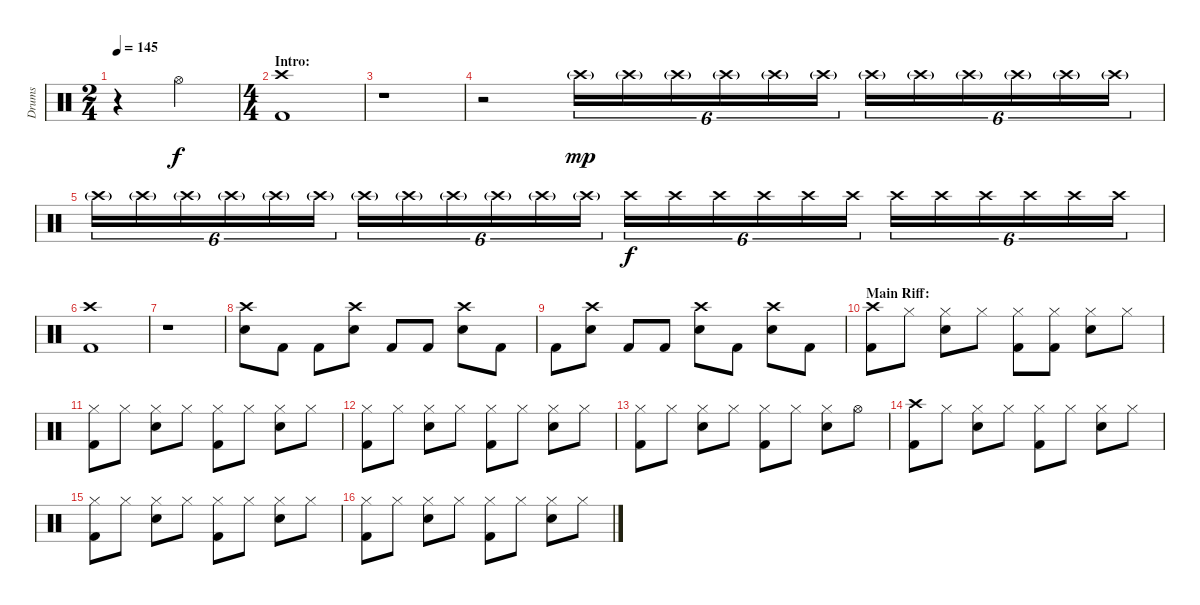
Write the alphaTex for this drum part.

\track ("Drums" "Drums") {instrument percussion}
\staff {score}
\articulation defaults
\ts (2 4)
\tempo 145
\clef neutral
\ks c
r.4{dy f} "Hi-Hat (open)".4 |
\ts (4 4)
\section ("" "Intro:")
("Crash high (hit)" "Kick (hit) 2").1 |
r.1 |
r.2 "Crash high (hit)"{g}.16{tu (6 4) dy mp} "Crash high (hit)"{g}.16{tu (6 4)} "Crash high (hit)"{g}.16{tu (6 4)} "Crash high (hit)"{g}.16{tu (6 4)} "Crash high (hit)"{g}.16{tu (6 4)} "Crash high (hit)"{g}.16{tu (6 4)} "Crash high (hit)"{g}.16{tu (6 4)} "Crash high (hit)"{g}.16{tu (6 4)} "Crash high (hit)"{g}.16{tu (6 4)} "Crash high (hit)"{g}.16{tu (6 4)} "Crash high (hit)"{g}.16{tu (6 4)} "Crash high (hit)"{g}.16{tu (6 4)} |
"Crash high (hit)"{g}.16{tu (6 4)} "Crash high (hit)"{g}.16{tu (6 4)} "Crash high (hit)"{g}.16{tu (6 4)} "Crash high (hit)"{g}.16{tu (6 4)} "Crash high (hit)"{g}.16{tu (6 4)} "Crash high (hit)"{g}.16{tu (6 4)} "Crash high (hit)"{g}.16{tu (6 4)} "Crash high (hit)"{g}.16{tu (6 4)} "Crash high (hit)"{g}.16{tu (6 4)} "Crash high (hit)"{g}.16{tu (6 4)} "Crash high (hit)"{g}.16{tu (6 4)} "Crash high (hit)"{g}.16{tu (6 4)} "Crash high (hit)".16{tu (6 4) dy f} "Crash high (hit)".16{tu (6 4)} "Crash high (hit)".16{tu (6 4)} "Crash high (hit)".16{tu (6 4)} "Crash high (hit)".16{tu (6 4)} "Crash high (hit)".16{tu (6 4)} "Crash high (hit)".16{tu (6 4)} "Crash high (hit)".16{tu (6 4)} "Crash high (hit)".16{tu (6 4)} "Crash high (hit)".16{tu (6 4)} "Crash high (hit)".16{tu (6 4)} "Crash high (hit)".16{tu (6 4)} |
("Crash high (hit)" "Kick (hit) 2").1 |
r.1 |
("Crash high (hit)" "Electric Snare (hit)").8 "Kick (hit) 2".8 "Kick (hit) 2".8 ("Crash high (hit)" "Electric Snare (hit)").8 "Kick (hit) 2".8 "Kick (hit) 2".8 ("Crash high (hit)" "Electric Snare (hit)").8 "Kick (hit) 2".8 |
"Kick (hit) 2".8 ("Crash high (hit)" "Electric Snare (hit)").8 "Kick (hit) 2".8 "Kick (hit) 2".8 ("Crash high (hit)" "Electric Snare (hit)").8 "Kick (hit) 2".8 ("Crash high (hit)" "Electric Snare (hit)").8 "Kick (hit) 2".8 |
\section ("" "Main Riff:")
("Crash high (hit)" "Kick (hit) 2").8 "Hi-Hat (closed)".8 ("Hi-Hat (closed)" "Electric Snare (hit)").8 "Hi-Hat (closed)".8 ("Hi-Hat (closed)" "Kick (hit) 2").8 ("Hi-Hat (closed)" "Kick (hit) 2").8 ("Hi-Hat (closed)" "Electric Snare (hit)").8 "Hi-Hat (closed)".8 |
("Hi-Hat (closed)" "Kick (hit) 2").8 "Hi-Hat (closed)".8 ("Hi-Hat (closed)" "Electric Snare (hit)").8 "Hi-Hat (closed)".8 ("Hi-Hat (closed)" "Kick (hit) 2").8 "Hi-Hat (closed)".8 ("Hi-Hat (closed)" "Electric Snare (hit)").8 "Hi-Hat (closed)".8 |
("Hi-Hat (closed)" "Kick (hit) 2").8 "Hi-Hat (closed)".8 ("Hi-Hat (closed)" "Electric Snare (hit)").8 "Hi-Hat (closed)".8 ("Hi-Hat (closed)" "Kick (hit) 2").8 "Hi-Hat (closed)".8 ("Hi-Hat (closed)" "Electric Snare (hit)").8 "Hi-Hat (closed)".8 |
("Hi-Hat (closed)" "Kick (hit) 2").8 "Hi-Hat (closed)".8 ("Hi-Hat (closed)" "Electric Snare (hit)").8 "Hi-Hat (closed)".8 ("Hi-Hat (closed)" "Kick (hit) 2").8 "Hi-Hat (closed)".8 ("Hi-Hat (closed)" "Electric Snare (hit)").8 "Hi-Hat (open)".8 |
("Crash high (hit)" "Kick (hit) 2").8 "Hi-Hat (closed)".8 ("Hi-Hat (closed)" "Electric Snare (hit)").8 "Hi-Hat (closed)".8 ("Hi-Hat (closed)" "Kick (hit) 2").8 "Hi-Hat (closed)".8 ("Hi-Hat (closed)" "Electric Snare (hit)").8 "Hi-Hat (closed)".8 |
("Hi-Hat (closed)" "Kick (hit) 2").8 "Hi-Hat (closed)".8 ("Hi-Hat (closed)" "Electric Snare (hit)").8 "Hi-Hat (closed)".8 ("Hi-Hat (closed)" "Kick (hit) 2").8 "Hi-Hat (closed)".8 ("Hi-Hat (closed)" "Electric Snare (hit)").8 "Hi-Hat (closed)".8 |
("Hi-Hat (closed)" "Kick (hit) 2").8 "Hi-Hat (closed)".8 ("Hi-Hat (closed)" "Electric Snare (hit)").8 "Hi-Hat (closed)".8 ("Hi-Hat (closed)" "Kick (hit) 2").8 "Hi-Hat (closed)".8 ("Hi-Hat (closed)" "Electric Snare (hit)").8 "Hi-Hat (closed)".8
